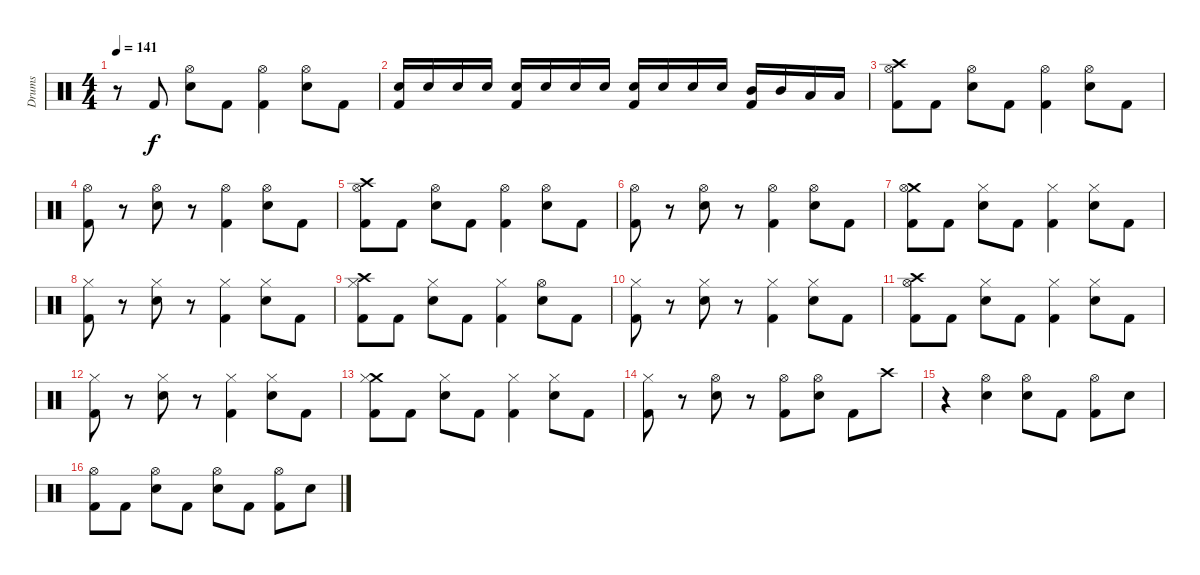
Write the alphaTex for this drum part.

\track ("Drums" "Drums") {instrument percussion}
\staff {score}
\articulation defaults
\ts (4 4)
\tempo 141
\clef neutral
\ks c
r.8{dy f} "Kick (hit) 2".8 ("Hi-Hat (open)" "Electric Snare (hit)").8 "Kick (hit) 2".8 ("Hi-Hat (open)" "Kick (hit) 2").4 ("Hi-Hat (open)" "Electric Snare (hit)").8 "Kick (hit) 2".8 |
("Electric Snare (hit)" "Kick (hit) 2").16 "Electric Snare (hit)".16 "Electric Snare (hit)".16 "Electric Snare (hit)".16 ("Electric Snare (hit)" "Kick (hit) 2").16 "Electric Snare (hit)".16 "Electric Snare (hit)".16 "Electric Snare (hit)".16 ("Electric Snare (hit)" "Kick (hit) 2").16 "Electric Snare (hit)".16 "Electric Snare (hit)".16 "Electric Snare (hit)".16 ("Mid Tom (hit)" "Kick (hit) 2").16 "Mid Tom (hit)".16 "Low Tom (hit)".16 "Low Tom (hit)".16 |
("Crash high (hit)" "Hi-Hat (open)" "Kick (hit) 2").8 "Kick (hit) 2".8 ("Hi-Hat (open)" "Electric Snare (hit)").8 "Kick (hit) 2".8 ("Hi-Hat (open)" "Kick (hit) 2").4 ("Hi-Hat (open)" "Electric Snare (hit)").8 "Kick (hit) 2".8 |
("Hi-Hat (open)" "Kick (hit) 2").8 r.8 ("Hi-Hat (open)" "Electric Snare (hit)").8 r.8 ("Hi-Hat (open)" "Kick (hit) 2").4 ("Hi-Hat (open)" "Electric Snare (hit)").8 "Kick (hit) 2".8 |
("Crash high (hit)" "Hi-Hat (open)" "Kick (hit) 2").8 "Kick (hit) 2".8 ("Hi-Hat (open)" "Electric Snare (hit)").8 "Kick (hit) 2".8 ("Hi-Hat (open)" "Kick (hit) 2").4 ("Hi-Hat (open)" "Electric Snare (hit)").8 "Kick (hit) 2".8 |
("Hi-Hat (open)" "Kick (hit) 2").8 r.8 ("Hi-Hat (open)" "Electric Snare (hit)").8 r.8 ("Hi-Hat (open)" "Kick (hit) 2").4 ("Hi-Hat (open)" "Electric Snare (hit)").8 "Kick (hit) 2".8 |
("Crash medium (hit)" "Hi-Hat (open)" "Kick (hit) 2").8 "Kick (hit) 2".8 ("Hi-Hat (closed)" "Electric Snare (hit)").8 "Kick (hit) 2".8 ("Hi-Hat (closed)" "Kick (hit) 2").4 ("Hi-Hat (closed)" "Electric Snare (hit)").8 "Kick (hit) 2".8 |
("Hi-Hat (closed)" "Kick (hit) 2").8 r.8 ("Hi-Hat (closed)" "Electric Snare (hit)").8 r.8 ("Hi-Hat (closed)" "Kick (hit) 2").4 ("Hi-Hat (closed)" "Electric Snare (hit)").8 "Kick (hit) 2".8 |
("Crash high (hit)" "Hi-Hat (closed)" "Kick (hit) 2").8 "Kick (hit) 2".8 ("Hi-Hat (closed)" "Electric Snare (hit)").8 "Kick (hit) 2".8 ("Hi-Hat (closed)" "Kick (hit) 2").4 ("Hi-Hat (open)" "Electric Snare (hit)").8 "Kick (hit) 2".8 |
("Hi-Hat (closed)" "Kick (hit) 2").8 r.8 ("Hi-Hat (closed)" "Electric Snare (hit)").8 r.8 ("Hi-Hat (closed)" "Kick (hit) 2").4 ("Hi-Hat (closed)" "Electric Snare (hit)").8 "Kick (hit) 2".8 |
("Crash high (hit)" "Hi-Hat (open)" "Kick (hit) 2").8 "Kick (hit) 2".8 ("Hi-Hat (closed)" "Electric Snare (hit)").8 "Kick (hit) 2".8 ("Hi-Hat (closed)" "Kick (hit) 2").4 ("Hi-Hat (closed)" "Electric Snare (hit)").8 "Kick (hit) 2".8 |
("Hi-Hat (closed)" "Kick (hit) 2").8 r.8 ("Hi-Hat (closed)" "Electric Snare (hit)").8 r.8 ("Hi-Hat (closed)" "Kick (hit) 2").4 ("Hi-Hat (closed)" "Electric Snare (hit)").8 "Kick (hit) 2".8 |
("Crash medium (hit)" "Hi-Hat (closed)" "Kick (hit) 2").8 "Kick (hit) 2".8 ("Hi-Hat (closed)" "Electric Snare (hit)").8 "Kick (hit) 2".8 ("Hi-Hat (closed)" "Kick (hit) 2").4 ("Hi-Hat (closed)" "Electric Snare (hit)").8 "Kick (hit) 2".8 |
("Hi-Hat (closed)" "Kick (hit) 2").8 r.8 ("Hi-Hat (open)" "Electric Snare (hit)").8 r.8 ("Hi-Hat (open)" "Kick (hit) 2").8 ("Hi-Hat (open)" "Electric Snare (hit)").8 "Kick (hit) 2".8 "Crash high (hit)".8 |
r.4 ("Hi-Hat (open)" "Electric Snare (hit)").4 ("Hi-Hat (open)" "Electric Snare (hit)").8 "Kick (hit) 2".8 ("Hi-Hat (open)" "Kick (hit) 2").8 "Electric Snare (hit)".8 |
("Hi-Hat (open)" "Kick (hit) 2").8 "Kick (hit) 2".8 ("Hi-Hat (open)" "Electric Snare (hit)").8 "Kick (hit) 2".8 ("Hi-Hat (open)" "Electric Snare (hit)").8 "Kick (hit) 2".8 ("Hi-Hat (open)" "Kick (hit) 2").8 "Electric Snare (hit)".8
